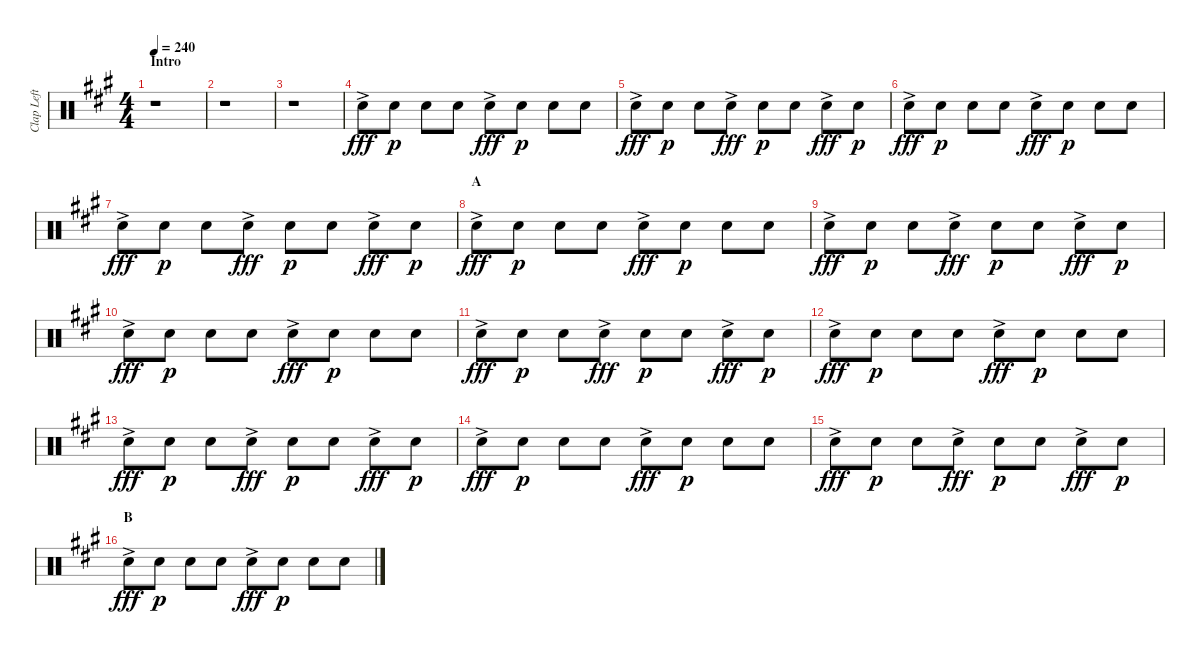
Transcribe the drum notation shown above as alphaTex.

\track ("Clap Left" "Clap Left") {instrument percussion}
\staff {score}
\articulation defaults
\ts (4 4)
\section ("" "Intro")
\tempo 240
\clef neutral
\ks a
r.1{dy fff} |
r.1 |
r.1 |
"Hand Clap (hit)"{ac}.8{volume 16} "Hand Clap (hit)".8{dy p} "Hand Clap (hit)".8 "Hand Clap (hit)".8 "Hand Clap (hit)"{ac}.8{dy fff} "Hand Clap (hit)".8{dy p} "Hand Clap (hit)".8 "Hand Clap (hit)".8 |
"Hand Clap (hit)"{ac}.8{dy fff} "Hand Clap (hit)".8{dy p} "Hand Clap (hit)".8 "Hand Clap (hit)"{ac}.8{dy fff} "Hand Clap (hit)".8{dy p} "Hand Clap (hit)".8 "Hand Clap (hit)"{ac}.8{dy fff} "Hand Clap (hit)".8{dy p} |
"Hand Clap (hit)"{ac}.8{dy fff} "Hand Clap (hit)".8{dy p} "Hand Clap (hit)".8 "Hand Clap (hit)".8 "Hand Clap (hit)"{ac}.8{dy fff} "Hand Clap (hit)".8{dy p} "Hand Clap (hit)".8 "Hand Clap (hit)".8 |
"Hand Clap (hit)"{ac}.8{dy fff} "Hand Clap (hit)".8{dy p} "Hand Clap (hit)".8 "Hand Clap (hit)"{ac}.8{dy fff} "Hand Clap (hit)".8{dy p} "Hand Clap (hit)".8 "Hand Clap (hit)"{ac}.8{dy fff} "Hand Clap (hit)".8{dy p} |
\section ("" "A")
"Hand Clap (hit)"{ac}.8{dy fff} "Hand Clap (hit)".8{dy p} "Hand Clap (hit)".8 "Hand Clap (hit)".8 "Hand Clap (hit)"{ac}.8{dy fff} "Hand Clap (hit)".8{dy p} "Hand Clap (hit)".8 "Hand Clap (hit)".8 |
"Hand Clap (hit)"{ac}.8{dy fff} "Hand Clap (hit)".8{dy p} "Hand Clap (hit)".8 "Hand Clap (hit)"{ac}.8{dy fff} "Hand Clap (hit)".8{dy p} "Hand Clap (hit)".8 "Hand Clap (hit)"{ac}.8{dy fff} "Hand Clap (hit)".8{dy p} |
"Hand Clap (hit)"{ac}.8{dy fff} "Hand Clap (hit)".8{dy p} "Hand Clap (hit)".8 "Hand Clap (hit)".8 "Hand Clap (hit)"{ac}.8{dy fff} "Hand Clap (hit)".8{dy p} "Hand Clap (hit)".8 "Hand Clap (hit)".8 |
"Hand Clap (hit)"{ac}.8{dy fff} "Hand Clap (hit)".8{dy p} "Hand Clap (hit)".8 "Hand Clap (hit)"{ac}.8{dy fff} "Hand Clap (hit)".8{dy p} "Hand Clap (hit)".8 "Hand Clap (hit)"{ac}.8{dy fff} "Hand Clap (hit)".8{dy p} |
"Hand Clap (hit)"{ac}.8{dy fff} "Hand Clap (hit)".8{dy p} "Hand Clap (hit)".8 "Hand Clap (hit)".8 "Hand Clap (hit)"{ac}.8{dy fff} "Hand Clap (hit)".8{dy p} "Hand Clap (hit)".8 "Hand Clap (hit)".8 |
"Hand Clap (hit)"{ac}.8{dy fff} "Hand Clap (hit)".8{dy p} "Hand Clap (hit)".8 "Hand Clap (hit)"{ac}.8{dy fff} "Hand Clap (hit)".8{dy p} "Hand Clap (hit)".8 "Hand Clap (hit)"{ac}.8{dy fff} "Hand Clap (hit)".8{dy p} |
"Hand Clap (hit)"{ac}.8{dy fff} "Hand Clap (hit)".8{dy p} "Hand Clap (hit)".8 "Hand Clap (hit)".8 "Hand Clap (hit)"{ac}.8{dy fff} "Hand Clap (hit)".8{dy p} "Hand Clap (hit)".8 "Hand Clap (hit)".8 |
"Hand Clap (hit)"{ac}.8{dy fff} "Hand Clap (hit)".8{dy p} "Hand Clap (hit)".8 "Hand Clap (hit)"{ac}.8{dy fff} "Hand Clap (hit)".8{dy p} "Hand Clap (hit)".8 "Hand Clap (hit)"{ac}.8{dy fff} "Hand Clap (hit)".8{dy p} |
\section ("" "B")
"Hand Clap (hit)"{ac}.8{dy fff} "Hand Clap (hit)".8{dy p} "Hand Clap (hit)".8 "Hand Clap (hit)".8 "Hand Clap (hit)"{ac}.8{dy fff} "Hand Clap (hit)".8{dy p} "Hand Clap (hit)".8 "Hand Clap (hit)".8
